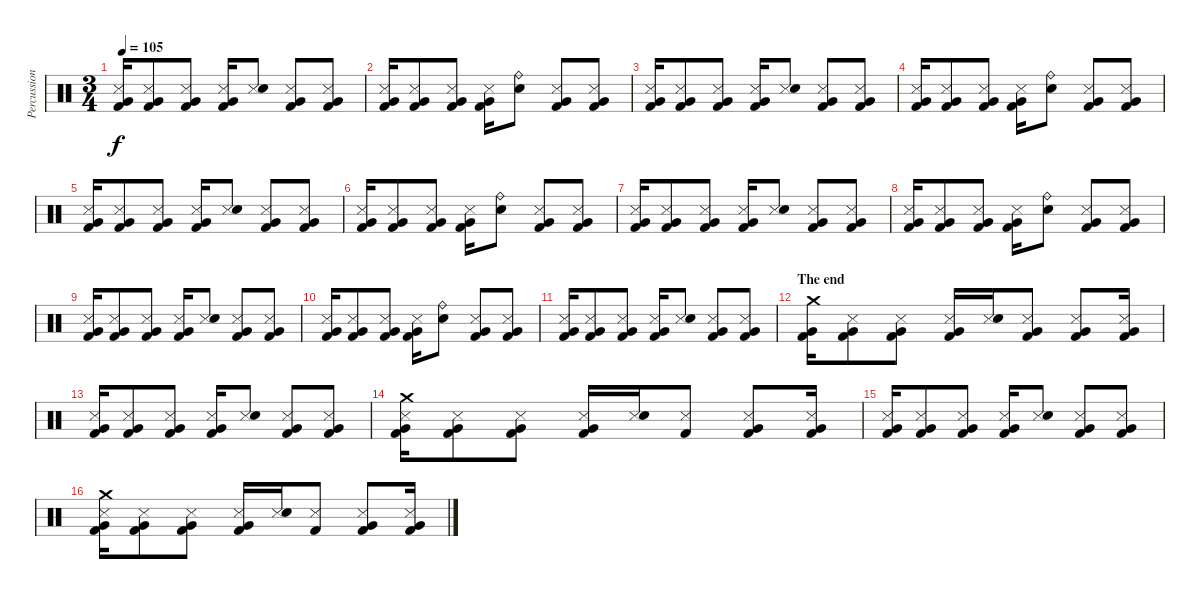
\track ("Percussions" "Percussion") {instrument percussion}
\staff {score}
\articulation defaults
\ts (3 4)
\tempo 105
\clef neutral
\ks c
("Metronome (hit)" "Very Low Tom (hit)" "Kick (hit) 2").16{dy f} ("Metronome (hit)" "Very Low Tom (hit)" "Kick (hit) 2").8 ("Metronome (hit)" "Very Low Tom (hit)" "Kick (hit) 2").8 ("Metronome (hit)" "Very Low Tom (hit)" "Kick (hit) 2").16 ("Metronome (hit)" "Snare (hit) 2").8 ("Metronome (hit)" "Very Low Tom (hit)" "Kick (hit) 2").8 ("Metronome (hit)" "Very Low Tom (hit)" "Kick (hit) 2").8 |
("Metronome (hit)" "Very Low Tom (hit)" "Kick (hit) 2").16 ("Metronome (hit)" "Very Low Tom (hit)" "Kick (hit) 2").8 ("Metronome (hit)" "Very Low Tom (hit)" "Kick (hit) 2").8 ("Metronome (hit)" "Very Low Tom (hit)" "Kick (hit) 2").16 ("Ride (bell)" "Snare (hit) 2").8 ("Metronome (hit)" "Very Low Tom (hit)" "Kick (hit) 2").8 ("Metronome (hit)" "Very Low Tom (hit)" "Kick (hit) 2").8 |
("Metronome (hit)" "Very Low Tom (hit)" "Kick (hit) 2").16 ("Metronome (hit)" "Very Low Tom (hit)" "Kick (hit) 2").8 ("Metronome (hit)" "Very Low Tom (hit)" "Kick (hit) 2").8 ("Metronome (hit)" "Very Low Tom (hit)" "Kick (hit) 2").16 ("Metronome (hit)" "Snare (hit) 2").8 ("Metronome (hit)" "Very Low Tom (hit)" "Kick (hit) 2").8 ("Metronome (hit)" "Very Low Tom (hit)" "Kick (hit) 2").8 |
("Metronome (hit)" "Very Low Tom (hit)" "Kick (hit) 2").16 ("Metronome (hit)" "Very Low Tom (hit)" "Kick (hit) 2").8 ("Metronome (hit)" "Very Low Tom (hit)" "Kick (hit) 2").8 ("Metronome (hit)" "Very Low Tom (hit)" "Kick (hit) 2").16 ("Ride (bell)" "Snare (hit) 2").8 ("Metronome (hit)" "Very Low Tom (hit)" "Kick (hit) 2").8 ("Metronome (hit)" "Very Low Tom (hit)" "Kick (hit) 2").8 |
("Metronome (hit)" "Very Low Tom (hit)" "Kick (hit) 2").16 ("Metronome (hit)" "Very Low Tom (hit)" "Kick (hit) 2").8 ("Metronome (hit)" "Very Low Tom (hit)" "Kick (hit) 2").8 ("Metronome (hit)" "Very Low Tom (hit)" "Kick (hit) 2").16 ("Metronome (hit)" "Snare (hit) 2").8 ("Metronome (hit)" "Very Low Tom (hit)" "Kick (hit) 2").8 ("Metronome (hit)" "Very Low Tom (hit)" "Kick (hit) 2").8 |
("Metronome (hit)" "Very Low Tom (hit)" "Kick (hit) 2").16 ("Metronome (hit)" "Very Low Tom (hit)" "Kick (hit) 2").8 ("Metronome (hit)" "Very Low Tom (hit)" "Kick (hit) 2").8 ("Metronome (hit)" "Very Low Tom (hit)" "Kick (hit) 2").16 ("Ride (bell)" "Snare (hit) 2").8 ("Metronome (hit)" "Very Low Tom (hit)" "Kick (hit) 2").8 ("Metronome (hit)" "Very Low Tom (hit)" "Kick (hit) 2").8 |
("Metronome (hit)" "Very Low Tom (hit)" "Kick (hit) 2").16 ("Metronome (hit)" "Very Low Tom (hit)" "Kick (hit) 2").8 ("Metronome (hit)" "Very Low Tom (hit)" "Kick (hit) 2").8 ("Metronome (hit)" "Very Low Tom (hit)" "Kick (hit) 2").16 ("Metronome (hit)" "Snare (hit) 2").8 ("Metronome (hit)" "Very Low Tom (hit)" "Kick (hit) 2").8 ("Metronome (hit)" "Very Low Tom (hit)" "Kick (hit) 2").8 |
("Metronome (hit)" "Very Low Tom (hit)" "Kick (hit) 2").16 ("Metronome (hit)" "Very Low Tom (hit)" "Kick (hit) 2").8 ("Metronome (hit)" "Very Low Tom (hit)" "Kick (hit) 2").8 ("Metronome (hit)" "Very Low Tom (hit)" "Kick (hit) 2").16 ("Ride (bell)" "Snare (hit) 2").8 ("Metronome (hit)" "Very Low Tom (hit)" "Kick (hit) 2").8 ("Metronome (hit)" "Very Low Tom (hit)" "Kick (hit) 2").8 |
("Metronome (hit)" "Very Low Tom (hit)" "Kick (hit) 2").16 ("Metronome (hit)" "Very Low Tom (hit)" "Kick (hit) 2").8 ("Metronome (hit)" "Very Low Tom (hit)" "Kick (hit) 2").8 ("Metronome (hit)" "Very Low Tom (hit)" "Kick (hit) 2").16 ("Metronome (hit)" "Snare (hit) 2").8 ("Metronome (hit)" "Very Low Tom (hit)" "Kick (hit) 2").8 ("Metronome (hit)" "Very Low Tom (hit)" "Kick (hit) 2").8 |
("Metronome (hit)" "Very Low Tom (hit)" "Kick (hit) 2").16 ("Metronome (hit)" "Very Low Tom (hit)" "Kick (hit) 2").8 ("Metronome (hit)" "Very Low Tom (hit)" "Kick (hit) 2").8 ("Metronome (hit)" "Very Low Tom (hit)" "Kick (hit) 2").16 ("Ride (bell)" "Snare (hit) 2").8 ("Metronome (hit)" "Very Low Tom (hit)" "Kick (hit) 2").8 ("Metronome (hit)" "Very Low Tom (hit)" "Kick (hit) 2").8 |
("Metronome (hit)" "Very Low Tom (hit)" "Kick (hit) 2").16 ("Metronome (hit)" "Very Low Tom (hit)" "Kick (hit) 2").8 ("Metronome (hit)" "Very Low Tom (hit)" "Kick (hit) 2").8 ("Metronome (hit)" "Very Low Tom (hit)" "Kick (hit) 2").16 ("Metronome (hit)" "Snare (hit) 2").8 ("Metronome (hit)" "Very Low Tom (hit)" "Kick (hit) 2").8 ("Metronome (hit)" "Very Low Tom (hit)" "Kick (hit) 2").8 |
\section ("" "The end")
("Crash medium (hit)" "Very Low Tom (hit)" "Kick (hit) 2").16 ("Metronome (hit)" "Very Low Tom (hit)" "Kick (hit) 2").8 ("Metronome (hit)" "Very Low Tom (hit)" "Kick (hit) 2").8 ("Metronome (hit)" "Very Low Tom (hit)" "Kick (hit) 2").16 ("Metronome (hit)" "Snare (hit) 2").16 ("Metronome (hit)" "Very Low Tom (hit)" "Kick (hit) 2").8 ("Metronome (hit)" "Very Low Tom (hit)" "Kick (hit) 2").8 ("Metronome (hit)" "Very Low Tom (hit)" "Kick (hit) 2").16 |
("Metronome (hit)" "Very Low Tom (hit)" "Kick (hit) 2").16 ("Metronome (hit)" "Very Low Tom (hit)" "Kick (hit) 2").8 ("Metronome (hit)" "Very Low Tom (hit)" "Kick (hit) 2").8 ("Metronome (hit)" "Very Low Tom (hit)" "Kick (hit) 2").16 ("Metronome (hit)" "Snare (hit) 2").8 ("Metronome (hit)" "Very Low Tom (hit)" "Kick (hit) 2").8 ("Metronome (hit)" "Very Low Tom (hit)" "Kick (hit) 2").8 |
("Metronome (hit)" "Crash medium (hit)" "Very Low Tom (hit)" "Kick (hit) 2").16 ("Metronome (hit)" "Very Low Tom (hit)" "Kick (hit) 2").8 ("Metronome (hit)" "Very Low Tom (hit)" "Kick (hit) 2").8 ("Metronome (hit)" "Very Low Tom (hit)" "Kick (hit) 2").16 ("Metronome (hit)" "Snare (hit) 2").16 ("Metronome (hit)" "Kick (hit) 2").8 ("Metronome (hit)" "Very Low Tom (hit)" "Kick (hit) 2").8 ("Metronome (hit)" "Very Low Tom (hit)" "Kick (hit) 2").16 |
("Metronome (hit)" "Very Low Tom (hit)" "Kick (hit) 2").16 ("Metronome (hit)" "Very Low Tom (hit)" "Kick (hit) 2").8 ("Metronome (hit)" "Very Low Tom (hit)" "Kick (hit) 2").8 ("Metronome (hit)" "Very Low Tom (hit)" "Kick (hit) 2").16 ("Metronome (hit)" "Snare (hit) 2").8 ("Metronome (hit)" "Very Low Tom (hit)" "Kick (hit) 2").8 ("Metronome (hit)" "Very Low Tom (hit)" "Kick (hit) 2").8 |
("Metronome (hit)" "Crash medium (hit)" "Very Low Tom (hit)" "Kick (hit) 2").16 ("Metronome (hit)" "Very Low Tom (hit)" "Kick (hit) 2").8 ("Metronome (hit)" "Very Low Tom (hit)" "Kick (hit) 2").8 ("Metronome (hit)" "Very Low Tom (hit)" "Kick (hit) 2").16 ("Metronome (hit)" "Snare (hit) 2").16 ("Metronome (hit)" "Kick (hit) 2").8 ("Metronome (hit)" "Very Low Tom (hit)" "Kick (hit) 2").8 ("Metronome (hit)" "Very Low Tom (hit)" "Kick (hit) 2").16
